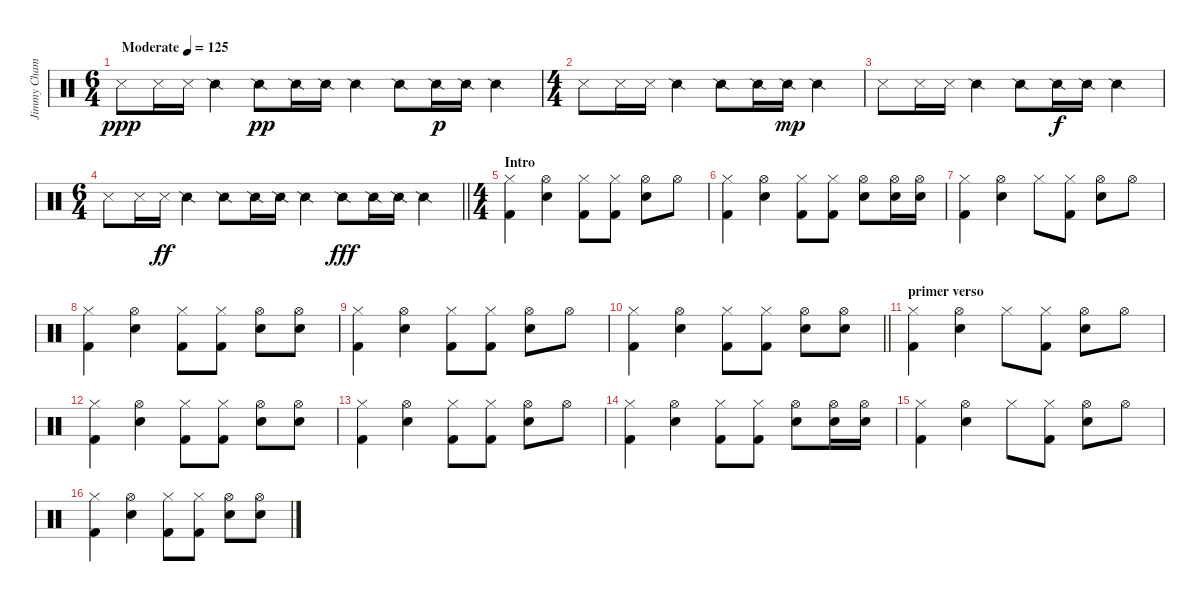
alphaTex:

\track ("Jimmy Chamberline" "Jimmy Cham") {instrument percussion}
\staff {score}
\articulation defaults
\ts (6 4)
\tempo (125 "Moderate")
\clef neutral
\ks c "Snare (side stick) 3".8{dy ppp} "Snare (side stick) 3".16 "Snare (side stick) 3".16 "Snare (side stick) 2".4 "Snare (side stick) 2".8{dy pp} "Snare (side stick) 2".16 "Snare (side stick) 2".16 "Snare (side stick) 2".4 "Snare (side stick) 2".8 "Snare (side stick) 2".16{dy p} "Snare (side stick) 2".16 "Snare (side stick) 2".4
|
\ts (4 4)
"Snare (side stick) 3".8 "Snare (side stick) 3".16 "Snare (side stick) 3".16 "Snare (side stick) 2".4 "Snare (side stick) 2".8 "Snare (side stick) 2".16 "Snare (side stick) 2".16{dy mp} "Snare (side stick) 2".4 |
"Snare (side stick) 3".8 "Snare (side stick) 3".16 "Snare (side stick) 3".16 "Snare (side stick) 2".4 "Snare (side stick) 2".8 "Snare (side stick) 2".16{dy f} "Snare (side stick) 2".16 "Snare (side stick) 2".4 |
\ts (6 4)
\barLineRight lightlight "Snare (side stick) 3".8 "Snare (side stick) 3".16 "Snare (side stick) 3".16{dy ff} "Snare (side stick) 2".4 "Snare (side stick) 2".8 "Snare (side stick) 2".16 "Snare (side stick) 2".16 "Snare (side stick) 2".4 "Snare (side stick) 2".8{dy fff} "Snare (side stick) 2".16 "Snare (side stick) 2".16 "Snare (side stick) 2".4
|
\ts (4 4)
\section ("" "Intro")
("Hi-Hat (closed)" "Kick (hit) 2").4 ("Hi-Hat (open)" "Snare (hit) 2").4 ("Hi-Hat (closed)" "Kick (hit) 2").8 ("Hi-Hat (closed)" "Kick (hit) 2").8 ("Hi-Hat (open)" "Snare (hit) 2").8 "Hi-Hat (open)".8 |
("Hi-Hat (closed)" "Kick (hit) 2").4 ("Hi-Hat (open)" "Snare (hit) 2").4 ("Hi-Hat (closed)" "Kick (hit) 2").8 ("Hi-Hat (closed)" "Kick (hit) 2").8 ("Hi-Hat (open)" "Snare (hit) 2").8 ("Hi-Hat (open)" "Snare (hit) 2").16 ("Hi-Hat (open)" "Snare (hit) 2").16 |
("Hi-Hat (closed)" "Kick (hit) 2").4 ("Hi-Hat (open)" "Snare (hit) 2").4 "Hi-Hat (closed)".8 ("Hi-Hat (closed)" "Kick (hit) 2").8 ("Hi-Hat (open)" "Snare (hit) 2").8 "Hi-Hat (open)".8 |
("Hi-Hat (closed)" "Kick (hit) 2").4 ("Hi-Hat (open)" "Snare (hit) 2").4 ("Hi-Hat (closed)" "Kick (hit) 2").8 ("Hi-Hat (closed)" "Kick (hit) 2").8 ("Hi-Hat (open)" "Snare (hit) 2").8 ("Hi-Hat (open)" "Snare (hit) 2").8 |
("Hi-Hat (closed)" "Kick (hit) 2").4 ("Hi-Hat (open)" "Snare (hit) 2").4 ("Hi-Hat (closed)" "Kick (hit) 2").8 ("Hi-Hat (closed)" "Kick (hit) 2").8 ("Hi-Hat (open)" "Snare (hit) 2").8 "Hi-Hat (open)".8 |
\barLineRight lightlight
("Hi-Hat (closed)" "Kick (hit) 2").4 ("Hi-Hat (open)" "Snare (hit) 2").4 ("Hi-Hat (closed)" "Kick (hit) 2").8 ("Hi-Hat (closed)" "Kick (hit) 2").8 ("Hi-Hat (open)" "Snare (hit) 2").8 ("Hi-Hat (open)" "Snare (hit) 2").8 |
\section ("" "primer verso")
("Hi-Hat (closed)" "Kick (hit) 2").4 ("Hi-Hat (open)" "Snare (hit) 2").4 "Hi-Hat (closed)".8 ("Hi-Hat (closed)" "Kick (hit) 2").8 ("Hi-Hat (open)" "Snare (hit) 2").8 "Hi-Hat (open)".8 |
("Hi-Hat (closed)" "Kick (hit) 2").4 ("Hi-Hat (open)" "Snare (hit) 2").4 ("Hi-Hat (closed)" "Kick (hit) 2").8 ("Hi-Hat (closed)" "Kick (hit) 2").8 ("Hi-Hat (open)" "Snare (hit) 2").8 ("Hi-Hat (open)" "Snare (hit) 2").8 |
("Hi-Hat (closed)" "Kick (hit) 2").4 ("Hi-Hat (open)" "Snare (hit) 2").4 ("Hi-Hat (closed)" "Kick (hit) 2").8 ("Hi-Hat (closed)" "Kick (hit) 2").8 ("Hi-Hat (open)" "Snare (hit) 2").8 "Hi-Hat (open)".8 |
("Hi-Hat (closed)" "Kick (hit) 2").4 ("Hi-Hat (open)" "Snare (hit) 2").4 ("Hi-Hat (closed)" "Kick (hit) 2").8 ("Hi-Hat (closed)" "Kick (hit) 2").8 ("Hi-Hat (open)" "Snare (hit) 2").8 ("Hi-Hat (open)" "Snare (hit) 2").16 ("Hi-Hat (open)" "Snare (hit) 2").16 |
("Hi-Hat (closed)" "Kick (hit) 2").4 ("Hi-Hat (open)" "Snare (hit) 2").4 "Hi-Hat (closed)".8 ("Hi-Hat (closed)" "Kick (hit) 2").8 ("Hi-Hat (open)" "Snare (hit) 2").8 "Hi-Hat (open)".8 |
("Hi-Hat (closed)" "Kick (hit) 2").4 ("Hi-Hat (open)" "Snare (hit) 2").4 ("Hi-Hat (closed)" "Kick (hit) 2").8 ("Hi-Hat (closed)" "Kick (hit) 2").8 ("Hi-Hat (open)" "Snare (hit) 2").8 ("Hi-Hat (open)" "Snare (hit) 2").8
